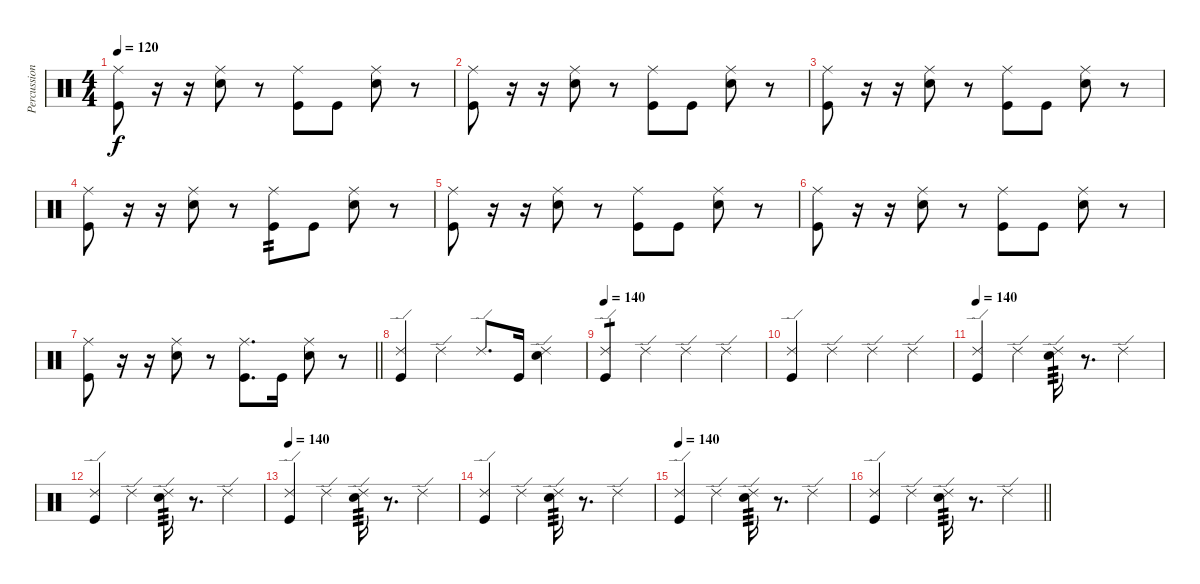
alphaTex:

\track ("Percussion" "Percussion") {instrument percussion}
\staff {score}
\articulation defaults
\ts (4 4)
\tempo 120
\clef neutral
\ks c
("Ride (middle)" "Kick (hit)").8{dy f} r.16 r.16 ("Ride (middle)" "Electric Snare (hit)").8 r.8 ("Ride (middle)" "Kick (hit)").8 "Kick (hit)".8 ("Ride (middle)" "Electric Snare (hit)").8 r.8 |
("Ride (middle)" "Kick (hit)").8 r.16 r.16 ("Ride (middle)" "Electric Snare (hit)").8 r.8 ("Ride (middle)" "Kick (hit)").8 "Kick (hit)".8 ("Ride (middle)" "Electric Snare (hit)").8 r.8 |
("Ride (middle)" "Kick (hit)").8 r.16 r.16 ("Ride (middle)" "Electric Snare (hit)").8 r.8 ("Ride (middle)" "Kick (hit)").8 "Kick (hit)".8 ("Ride (middle)" "Electric Snare (hit)").8 r.8 |
("Ride (middle)" "Kick (hit)").8 r.16 r.16 ("Ride (middle)" "Electric Snare (hit)").8 r.8 ("Ride (middle)" "Kick (hit)").8{tp 2} "Kick (hit)".8 ("Ride (middle)" "Electric Snare (hit)").8 r.8 |
("Ride (middle)" "Kick (hit)").8 r.16 r.16 ("Ride (middle)" "Electric Snare (hit)").8 r.8 ("Ride (middle)" "Kick (hit)").8 "Kick (hit)".8 ("Ride (middle)" "Electric Snare (hit)").8 r.8 |
("Ride (middle)" "Kick (hit)").8 r.16 r.16 ("Ride (middle)" "Electric Snare (hit)").8 r.8 ("Ride (middle)" "Kick (hit)").8 "Kick (hit)".8 ("Ride (middle)" "Electric Snare (hit)").8 r.8 |
\barLineRight lightlight
("Ride (middle)" "Kick (hit)").8 r.16 r.16 ("Ride (middle)" "Electric Snare (hit)").8 r.8 ("Ride (middle)" "Kick (hit)").8{d} "Kick (hit)".16 ("Ride (middle)" "Electric Snare (hit)").8 r.8 |
("Ride (edge) 2" "Kick (hit)").4 "Ride (edge) 2".4 "Ride (edge) 2".8{d} "Kick (hit)".16 ("Ride (edge) 2" "Electric Snare (hit)").4 |
\tempo 140
("Ride (edge) 2" "Kick (hit)").4{tp 1} "Ride (edge) 2".4 "Ride (edge) 2".4 "Ride (edge) 2".4 |
("Ride (edge) 2" "Kick (hit)").4 "Ride (edge) 2".4 "Ride (edge) 2".4 "Ride (edge) 2".4 |
\tempo 140
("Ride (edge) 2" "Kick (hit)").4 "Ride (edge) 2".4 ("Ride (edge) 2" "Electric Snare (hit)").16{tp 3} r.8{d} "Ride (edge) 2".4 |
("Ride (edge) 2" "Kick (hit)").4 "Ride (edge) 2".4 ("Ride (edge) 2" "Electric Snare (hit)").16{tp 3} r.8{d} "Ride (edge) 2".4 |
\tempo 140
("Ride (edge) 2" "Kick (hit)").4 "Ride (edge) 2".4 ("Ride (edge) 2" "Electric Snare (hit)").16{tp 3} r.8{d} "Ride (edge) 2".4 |
("Ride (edge) 2" "Kick (hit)").4 "Ride (edge) 2".4 ("Ride (edge) 2" "Electric Snare (hit)").16{tp 3} r.8{d} "Ride (edge) 2".4 |
\tempo 140
("Ride (edge) 2" "Kick (hit)").4 "Ride (edge) 2".4 ("Ride (edge) 2" "Electric Snare (hit)").16{tp 3} r.8{d} "Ride (edge) 2".4 |
\barLineRight lightlight
("Ride (edge) 2" "Kick (hit)").4 "Ride (edge) 2".4 ("Ride (edge) 2" "Electric Snare (hit)").16{tp 3} r.8{d} "Ride (edge) 2".4
